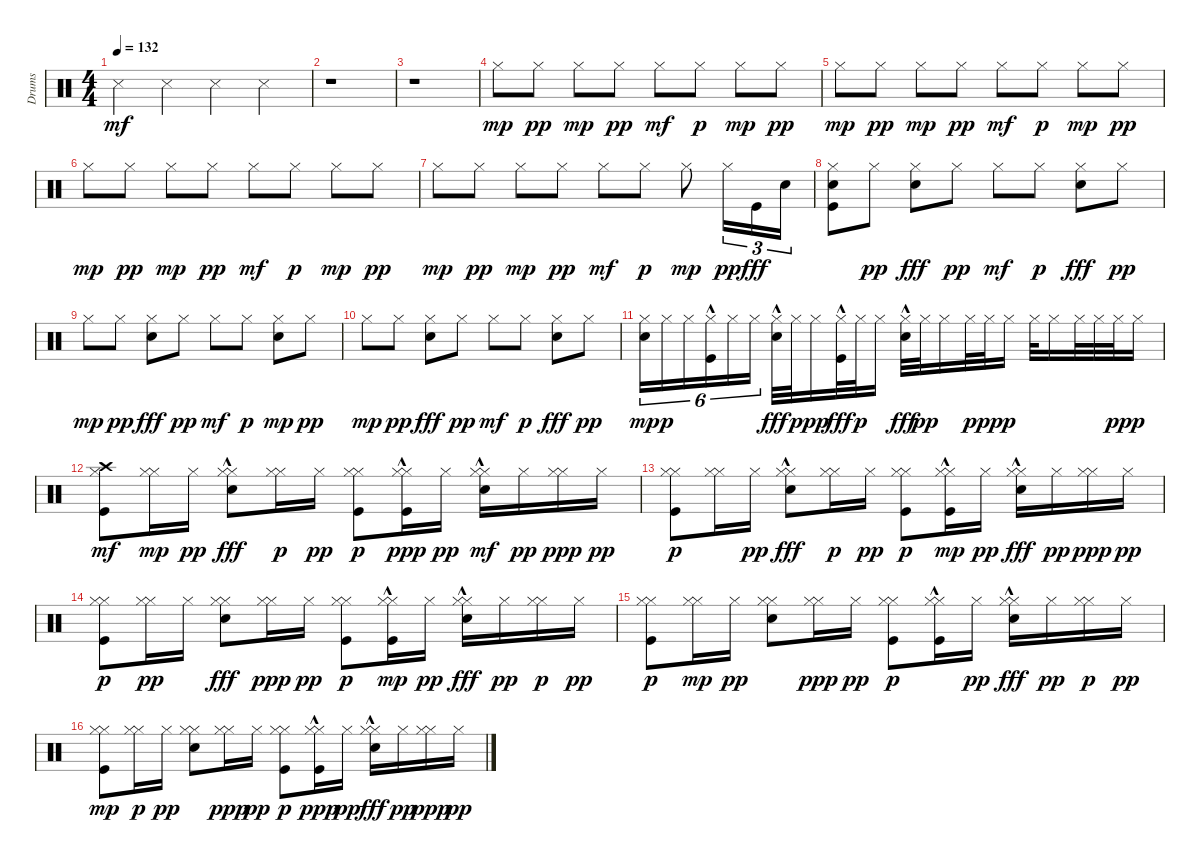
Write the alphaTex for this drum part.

\track ("Drums" "Drums") {instrument percussion}
\staff {score}
\articulation defaults
\ts (4 4)
\tempo 132
\clef neutral
\ks c "Snare (side stick) 3".4{dy mf} "Snare (side stick) 3".4 "Snare (side stick) 3".4 "Snare (side stick) 3".4
|
r.1 |
r.1 |
"Hi-Hat (closed)".8{dy mp} "Hi-Hat (closed)".8{dy pp} "Hi-Hat (closed)".8{dy mp} "Hi-Hat (closed)".8{dy pp} "Hi-Hat (closed)".8{dy mf} "Hi-Hat (closed)".8{dy p} "Hi-Hat (closed)".8{dy mp} "Hi-Hat (closed)".8{dy pp} |
"Hi-Hat (closed)".8{dy mp} "Hi-Hat (closed)".8{dy pp} "Hi-Hat (closed)".8{dy mp} "Hi-Hat (closed)".8{dy pp} "Hi-Hat (closed)".8{dy mf} "Hi-Hat (closed)".8{dy p} "Hi-Hat (closed)".8{dy mp} "Hi-Hat (closed)".8{dy pp} |
"Hi-Hat (closed)".8{dy mp} "Hi-Hat (closed)".8{dy pp} "Hi-Hat (closed)".8{dy mp} "Hi-Hat (closed)".8{dy pp} "Hi-Hat (closed)".8{dy mf} "Hi-Hat (closed)".8{dy p} "Hi-Hat (closed)".8{dy mp} "Hi-Hat (closed)".8{dy pp} |
"Hi-Hat (closed)".8{dy mp} "Hi-Hat (closed)".8{dy pp} "Hi-Hat (closed)".8{dy mp} "Hi-Hat (closed)".8{dy pp} "Hi-Hat (closed)".8{dy mf} "Hi-Hat (closed)".8{dy p} "Hi-Hat (closed)".8{dy mp} "Hi-Hat (closed)".16{tu (3 2) dy pp} "Kick (hit)".16{tu (3 2) dy fff} "Snare (hit) 2".16{tu (3 2)} |
("Kick (hit)" "Hi-Hat (closed)" "Snare (hit) 2").8 "Hi-Hat (closed)".8{dy pp} ("Hi-Hat (closed)" "Snare (hit) 2").8{dy fff} "Hi-Hat (closed)".8{dy pp} "Hi-Hat (closed)".8{dy mf} "Hi-Hat (closed)".8{dy p} ("Hi-Hat (closed)" "Snare (hit) 2").8{dy fff} "Hi-Hat (closed)".8{dy pp} |
"Hi-Hat (closed)".8{dy mp} "Hi-Hat (closed)".8{dy pp} ("Hi-Hat (closed)" "Snare (hit) 2").8{dy fff} "Hi-Hat (closed)".8{dy pp} "Hi-Hat (closed)".8{dy mf} "Hi-Hat (closed)".8{dy p} ("Snare (hit) 2" "Hi-Hat (closed)").8{dy mp} "Hi-Hat (closed)".8{dy pp} |
"Hi-Hat (closed)".8{dy mp} "Hi-Hat (closed)".8{dy pp} ("Hi-Hat (closed)" "Snare (hit) 2").8{dy fff} "Hi-Hat (closed)".8{dy pp} "Hi-Hat (closed)".8{dy mf} "Hi-Hat (closed)".8{dy p} ("Hi-Hat (closed)" "Snare (hit) 2").8{dy fff} "Hi-Hat (closed)".8{dy pp} |
("Snare (hit) 2" "Hi-Hat (closed)").16{tu (6 4) dy mp} "Hi-Hat (closed)".16{tu (6 4) dy p} "Hi-Hat (closed)".16{tu (6 4)} ("Kick (hit)"{hac} "Hi-Hat (closed)").16{tu (6 4)} "Hi-Hat (closed)".16{tu (6 4)} "Hi-Hat (closed)".16{tu (6 4)} ("Hi-Hat (closed)" "Snare (hit) 2"{hac}).32{dy fff} "Hi-Hat (closed)".32{dy p} "Hi-Hat (closed)".16{dy pp} ("Hi-Hat (closed)" "Kick (hit)"{hac}).32{dy fff} "Hi-Hat (closed)".32{dy p} "Hi-Hat (closed)".16 ("Hi-Hat (closed)" "Snare (hit) 2"{hac}).32{dy fff} "Hi-Hat (closed)".32{dy pp} "Hi-Hat (closed)".16 "Hi-Hat (closed)".32{dy p} "Hi-Hat (closed)".32{dy pp} "Hi-Hat (closed)".16{dy p} "Hi-Hat (closed)".32 "Hi-Hat (closed)".16 "Hi-Hat (closed)".32 "Hi-Hat (closed)".32 "Hi-Hat (closed)".32{dy pp} "Hi-Hat (closed)".16{dy p} |
("Kick (hit)" "Hi-Hat (closed)" "Crash high (hit)").8{dy mf} ("Hi-Hat (closed)" "Hi-Hat (closed)").16{dy mp} "Hi-Hat (closed)".16{dy pp} ("Hi-Hat (closed)" "Hi-Hat (closed)" "Snare (hit) 2"{hac}).8{dy fff} ("Hi-Hat (closed)" "Hi-Hat (closed)").16{dy p} "Hi-Hat (closed)".16{dy pp} ("Kick (hit)" "Hi-Hat (closed)" "Hi-Hat (closed)").8{dy p} ("Kick (hit)"{hac} "Hi-Hat (closed)" "Hi-Hat (closed)").16{dy ppp} "Hi-Hat (closed)".16{dy pp} ("Hi-Hat (closed)" "Snare (hit) 2"{hac} "Hi-Hat (closed)").16{dy mf} "Hi-Hat (closed)".16{dy pp} ("Hi-Hat (closed)" "Hi-Hat (closed)").16{dy ppp} "Hi-Hat (closed)".16{dy pp} |
("Kick (hit)" "Hi-Hat (closed)" "Hi-Hat (closed)").8{dy p} ("Hi-Hat (closed)" "Hi-Hat (closed)").16 "Hi-Hat (closed)".16{dy pp} ("Hi-Hat (closed)" "Hi-Hat (closed)" "Snare (hit) 2"{hac}).8{dy fff} ("Hi-Hat (closed)" "Hi-Hat (closed)").16{dy p} "Hi-Hat (closed)".16{dy pp} ("Kick (hit)" "Hi-Hat (closed)" "Hi-Hat (closed)").8{dy p} ("Kick (hit)"{hac} "Hi-Hat (closed)" "Hi-Hat (closed)").16{dy mp} "Hi-Hat (closed)".16{dy pp} ("Hi-Hat (closed)" "Snare (hit) 2"{hac} "Hi-Hat (closed)").16{dy fff} "Hi-Hat (closed)".16{dy pp} ("Hi-Hat (closed)" "Hi-Hat (closed)").16{dy ppp} "Hi-Hat (closed)".16{dy pp} |
("Kick (hit)" "Hi-Hat (closed)" "Hi-Hat (closed)").8{dy p} ("Hi-Hat (closed)" "Hi-Hat (closed)").16{dy pp} "Hi-Hat (closed)".16 ("Hi-Hat (closed)" "Hi-Hat (closed)" "Snare (hit) 2").8{dy fff} ("Hi-Hat (closed)" "Hi-Hat (closed)").16{dy ppp} "Hi-Hat (closed)".16{dy pp} ("Kick (hit)" "Hi-Hat (closed)" "Hi-Hat (closed)").8{dy p} ("Kick (hit)"{hac} "Hi-Hat (closed)" "Hi-Hat (closed)").16{dy mp} "Hi-Hat (closed)".16{dy pp} ("Hi-Hat (closed)" "Hi-Hat (closed)" "Snare (hit) 2"{hac}).16{dy fff} "Hi-Hat (closed)".16{dy pp} ("Hi-Hat (closed)" "Hi-Hat (closed)").16{dy p} "Hi-Hat (closed)".16{dy pp} |
("Kick (hit)" "Hi-Hat (closed)" "Hi-Hat (closed)").8{dy p} ("Hi-Hat (closed)" "Hi-Hat (closed)").16{dy mp} "Hi-Hat (closed)".16{dy pp} ("Snare (hit) 2" "Hi-Hat (closed)" "Hi-Hat (closed)").8 ("Hi-Hat (closed)" "Hi-Hat (closed)").16{dy ppp} "Hi-Hat (closed)".16{dy pp} ("Kick (hit)" "Hi-Hat (closed)" "Hi-Hat (closed)").8{dy p} ("Hi-Hat (closed)" "Kick (hit)"{hac} "Hi-Hat (closed)").16 "Hi-Hat (closed)".16{dy pp} ("Hi-Hat (closed)" "Hi-Hat (closed)" "Snare (hit) 2"{hac}).16{dy fff} "Hi-Hat (closed)".16{dy pp} ("Hi-Hat (closed)" "Hi-Hat (closed)").16{dy p} "Hi-Hat (closed)".16{dy pp} |
("Kick (hit)" "Hi-Hat (closed)" "Hi-Hat (closed)").8{dy mp} ("Hi-Hat (closed)" "Hi-Hat (closed)").16{dy p} "Hi-Hat (closed)".16{dy pp} ("Hi-Hat (closed)" "Snare (hit) 2" "Hi-Hat (closed)").8 ("Hi-Hat (closed)" "Hi-Hat (closed)").16{dy ppp} "Hi-Hat (closed)".16{dy pp} ("Kick (hit)" "Hi-Hat (closed)" "Hi-Hat (closed)").8{dy p} ("Kick (hit)"{hac} "Hi-Hat (closed)" "Hi-Hat (closed)").16{dy ppp} "Hi-Hat (closed)".16{dy pp} ("Hi-Hat (closed)" "Hi-Hat (closed)" "Snare (hit) 2"{hac}).16{dy fff} "Hi-Hat (closed)".16{dy pp} ("Hi-Hat (closed)" "Hi-Hat (closed)").16{dy ppp} "Hi-Hat (closed)".16{dy pp}
